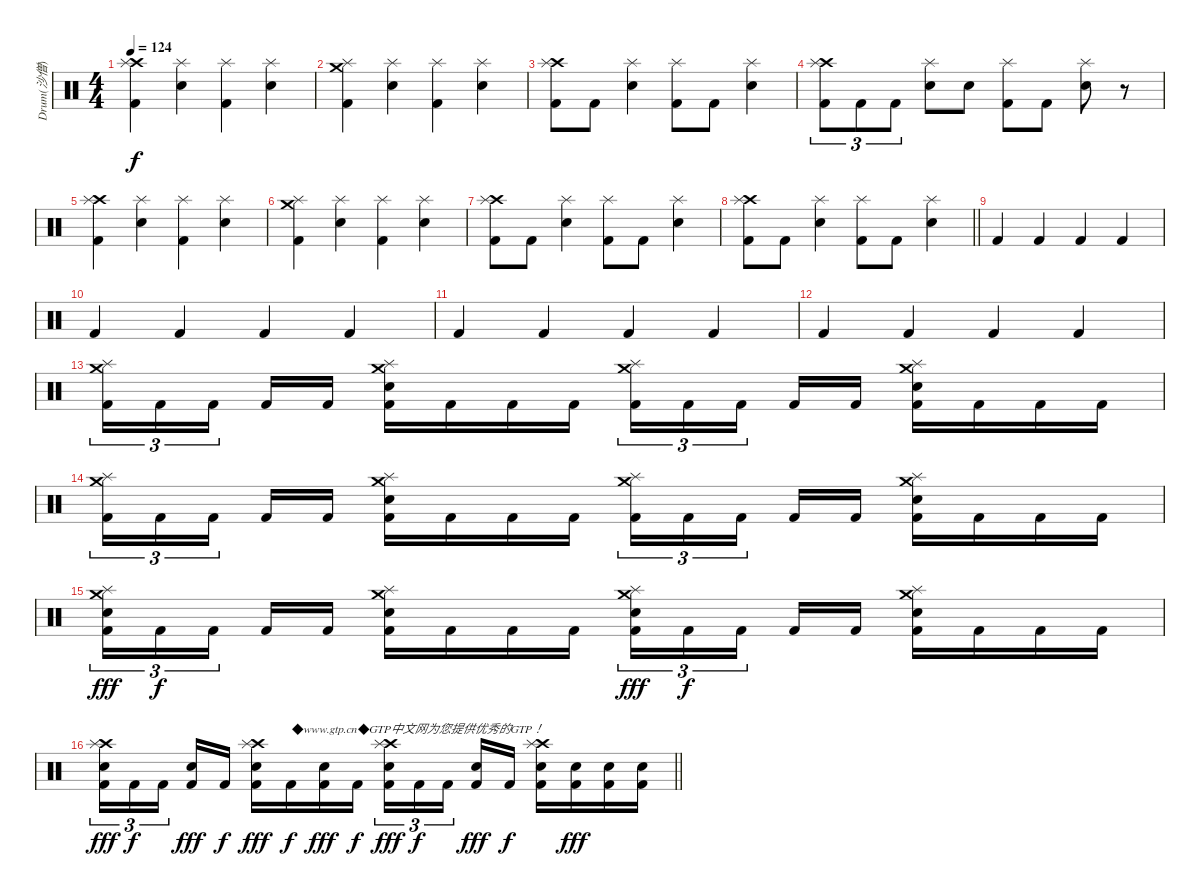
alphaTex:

\track ("Drum(沙僧)" "Drum(沙僧)") {instrument percussion}
\staff {score}
\articulation defaults
\ts (4 4)
\tempo 124
\clef neutral
\ks c
("Crash high (hit)" "Splash (hit)" "Kick (hit) 2").4{dy f} ("Splash (hit)" "Snare (hit) 2").4 ("Splash (hit)" "Kick (hit) 2").4 ("Splash (hit)" "Snare (hit) 2").4 |
("Crash medium (hit)" "Splash (hit)" "Kick (hit) 2").4 ("Splash (hit)" "Snare (hit) 2").4 ("Splash (hit)" "Kick (hit) 2").4 ("Splash (hit)" "Snare (hit) 2").4 |
("Crash high (hit)" "Splash (hit)" "Kick (hit) 2").8 "Kick (hit) 2".8 ("Splash (hit)" "Snare (hit) 2").4 ("Splash (hit)" "Kick (hit) 2").8 "Kick (hit) 2".8 ("Splash (hit)" "Snare (hit) 2").4 |
("Crash high (hit)" "Splash (hit)" "Kick (hit) 2").8{tu (3 2)} "Kick (hit) 2".8{tu (3 2)} "Kick (hit) 2".8{tu (3 2)} ("Splash (hit)" "Snare (hit) 2").8 "Snare (hit) 2".8 ("Splash (hit)" "Kick (hit) 2").8 "Kick (hit) 2".8 ("Splash (hit)" "Snare (hit) 2").8 r.8 |
("Crash high (hit)" "Splash (hit)" "Kick (hit) 2").4 ("Splash (hit)" "Snare (hit) 2").4 ("Splash (hit)" "Kick (hit) 2").4 ("Splash (hit)" "Snare (hit) 2").4 |
("Crash medium (hit)" "Splash (hit)" "Kick (hit) 2").4 ("Splash (hit)" "Snare (hit) 2").4 ("Splash (hit)" "Kick (hit) 2").4 ("Splash (hit)" "Snare (hit) 2").4 |
("Crash high (hit)" "Splash (hit)" "Kick (hit) 2").8 "Kick (hit) 2".8 ("Splash (hit)" "Snare (hit) 2").4 ("Splash (hit)" "Kick (hit) 2").8 "Kick (hit) 2".8 ("Splash (hit)" "Snare (hit) 2").4 |
\barLineRight lightlight
("Crash high (hit)" "Splash (hit)" "Kick (hit) 2").8 "Kick (hit) 2".8 ("Splash (hit)" "Snare (hit) 2").4 ("Splash (hit)" "Kick (hit) 2").8 "Kick (hit) 2".8 ("Splash (hit)" "Snare (hit) 2").4 |
"Kick (hit) 2".4 "Kick (hit) 2".4 "Kick (hit) 2".4 "Kick (hit) 2".4 |
"Kick (hit) 2".4 "Kick (hit) 2".4 "Kick (hit) 2".4 "Kick (hit) 2".4 |
"Kick (hit) 2".4 "Kick (hit) 2".4 "Kick (hit) 2".4 "Kick (hit) 2".4 |
"Kick (hit) 2".4 "Kick (hit) 2".4 "Kick (hit) 2".4 "Kick (hit) 2".4 |
("Crash medium (hit)" "Splash (hit)" "Kick (hit) 2").16{tu (3 2)} "Kick (hit) 2".16{tu (3 2)} "Kick (hit) 2".16{tu (3 2) beam splitsecondary} "Kick (hit) 2".16 "Kick (hit) 2".16 ("Crash medium (hit)" "Splash (hit)" "Snare (hit) 2" "Kick (hit) 2").16 "Kick (hit) 2".16 "Kick (hit) 2".16 "Kick (hit) 2".16 ("Crash medium (hit)" "Splash (hit)" "Kick (hit) 2").16{tu (3 2)} "Kick (hit) 2".16{tu (3 2)} "Kick (hit) 2".16{tu (3 2) beam splitsecondary} "Kick (hit) 2".16 "Kick (hit) 2".16 ("Crash medium (hit)" "Splash (hit)" "Snare (hit) 2" "Kick (hit) 2").16 "Kick (hit) 2".16 "Kick (hit) 2".16 "Kick (hit) 2".16 |
("Crash medium (hit)" "Splash (hit)" "Kick (hit) 2").16{tu (3 2)} "Kick (hit) 2".16{tu (3 2)} "Kick (hit) 2".16{tu (3 2) beam splitsecondary} "Kick (hit) 2".16 "Kick (hit) 2".16 ("Crash medium (hit)" "Splash (hit)" "Snare (hit) 2" "Kick (hit) 2").16 "Kick (hit) 2".16 "Kick (hit) 2".16 "Kick (hit) 2".16 ("Crash medium (hit)" "Splash (hit)" "Kick (hit) 2").16{tu (3 2)} "Kick (hit) 2".16{tu (3 2)} "Kick (hit) 2".16{tu (3 2) beam splitsecondary} "Kick (hit) 2".16 "Kick (hit) 2".16 ("Crash medium (hit)" "Splash (hit)" "Snare (hit) 2" "Kick (hit) 2").16 "Kick (hit) 2".16 "Kick (hit) 2".16 "Kick (hit) 2".16 |
("Crash medium (hit)" "Splash (hit)" "Snare (hit) 2" "Kick (hit) 2").16{tu (3 2) dy fff} "Kick (hit) 2".16{tu (3 2) dy f} "Kick (hit) 2".16{tu (3 2) beam splitsecondary} "Kick (hit) 2".16 "Kick (hit) 2".16 ("Crash medium (hit)" "Splash (hit)" "Snare (hit) 2" "Kick (hit) 2").16 "Kick (hit) 2".16 "Kick (hit) 2".16 "Kick (hit) 2".16 ("Crash medium (hit)" "Splash (hit)" "Snare (hit) 2" "Kick (hit) 2").16{tu (3 2) dy fff} "Kick (hit) 2".16{tu (3 2) dy f} "Kick (hit) 2".16{tu (3 2) beam splitsecondary} "Kick (hit) 2".16 "Kick (hit) 2".16 ("Crash medium (hit)" "Splash (hit)" "Snare (hit) 2" "Kick (hit) 2").16 "Kick (hit) 2".16 "Kick (hit) 2".16 "Kick (hit) 2".16 |
\barLineRight lightlight
("Crash high (hit)" "Splash (hit)" "Snare (hit) 2" "Kick (hit) 2").16{tu (3 2) dy fff} "Kick (hit) 2".16{tu (3 2) dy f} "Kick (hit) 2".16{tu (3 2) beam splitsecondary} ("Snare (hit) 2" "Kick (hit) 2").16{dy fff} "Kick (hit) 2".16{dy f} ("Crash high (hit)" "Splash (hit)" "Snare (hit) 2" "Kick (hit) 2").16{dy fff} "Kick (hit) 2".16{txt "◆www.gtp.cn◆GTP中文网为您提供优秀的GTP！" dy f} ("Snare (hit) 2" "Kick (hit) 2").16{dy fff} "Kick (hit) 2".16{dy f} ("Crash high (hit)" "Splash (hit)" "Snare (hit) 2" "Kick (hit) 2").16{tu (3 2) dy fff} "Kick (hit) 2".16{tu (3 2) dy f} "Kick (hit) 2".16{tu (3 2) beam splitsecondary} ("Snare (hit) 2" "Kick (hit) 2").16{dy fff} "Kick (hit) 2".16{dy f} ("Crash high (hit)" "Splash (hit)" "Snare (hit) 2" "Kick (hit) 2").16 ("Snare (hit) 2" "Kick (hit) 2").16{dy fff} ("Snare (hit) 2" "Kick (hit) 2").16 ("Snare (hit) 2" "Kick (hit) 2").16
